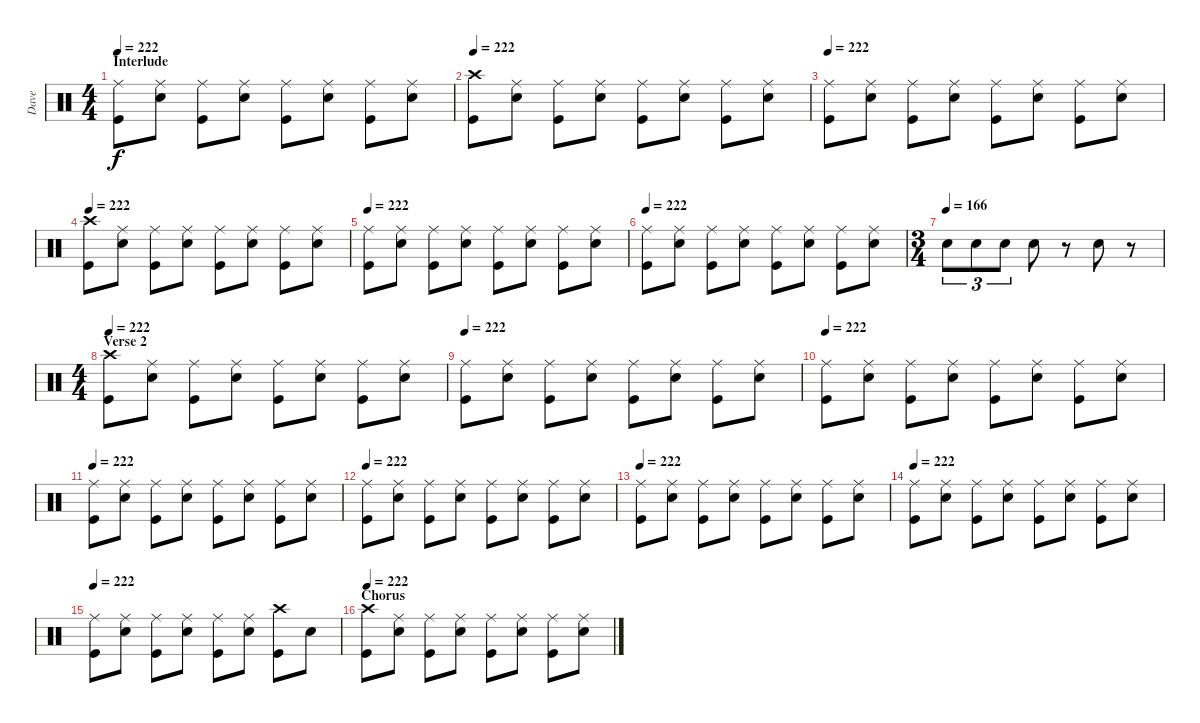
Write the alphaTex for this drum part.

\track ("Dave" "Dave") {instrument percussion}
\staff {score}
\articulation defaults
\ts (4 4)
\section ("" "Interlude")
\tempo 222
\clef neutral
\ks c
("Ride (middle)" "Kick (hit)").8{dy f} ("Ride (middle)" "Snare (hit) 2").8 ("Ride (middle)" "Kick (hit)").8 ("Ride (middle)" "Snare (hit) 2").8 ("Ride (middle)" "Kick (hit)").8 ("Ride (middle)" "Snare (hit) 2").8 ("Ride (middle)" "Kick (hit)").8 ("Ride (middle)" "Snare (hit) 2").8 |
\tempo 222
("Crash high (hit)" "Kick (hit)").8 ("Ride (middle)" "Snare (hit) 2").8 ("Ride (middle)" "Kick (hit)").8 ("Ride (middle)" "Snare (hit) 2").8 ("Ride (middle)" "Kick (hit)").8 ("Ride (middle)" "Snare (hit) 2").8 ("Ride (middle)" "Kick (hit)").8 ("Ride (middle)" "Snare (hit) 2").8 |
\tempo 222
("Ride (middle)" "Kick (hit)").8 ("Ride (middle)" "Snare (hit) 2").8 ("Ride (middle)" "Kick (hit)").8 ("Ride (middle)" "Snare (hit) 2").8 ("Ride (middle)" "Kick (hit)").8 ("Ride (middle)" "Snare (hit) 2").8 ("Ride (middle)" "Kick (hit)").8 ("Ride (middle)" "Snare (hit) 2").8 |
\tempo 222
("Crash high (hit)" "Kick (hit)").8 ("Ride (middle)" "Snare (hit) 2").8 ("Ride (middle)" "Kick (hit)").8 ("Ride (middle)" "Snare (hit) 2").8 ("Ride (middle)" "Kick (hit)").8 ("Ride (middle)" "Snare (hit) 2").8 ("Ride (middle)" "Kick (hit)").8 ("Ride (middle)" "Snare (hit) 2").8 |
\tempo 222
("Ride (middle)" "Kick (hit)").8 ("Ride (middle)" "Snare (hit) 2").8 ("Ride (middle)" "Kick (hit)").8 ("Ride (middle)" "Snare (hit) 2").8 ("Ride (middle)" "Kick (hit)").8 ("Ride (middle)" "Snare (hit) 2").8 ("Ride (middle)" "Kick (hit)").8 ("Ride (middle)" "Snare (hit) 2").8 |
\tempo 222
("Ride (middle)" "Kick (hit)").8 ("Ride (middle)" "Snare (hit) 2").8 ("Ride (middle)" "Kick (hit)").8 ("Ride (middle)" "Snare (hit) 2").8 ("Ride (middle)" "Kick (hit)").8 ("Ride (middle)" "Snare (hit) 2").8 ("Ride (middle)" "Kick (hit)").8 ("Ride (middle)" "Snare (hit) 2").8 |
\ts (3 4)
\tempo (166)
"Snare (hit) 2".8{tu (3 2)} "Snare (hit) 2".8{tu (3 2)} "Snare (hit) 2".8{tu (3 2)} "Snare (hit) 2".8 r.8 "Snare (hit) 2".8 r.8 |
\ts (4 4)
\section ("" "Verse 2")
\tempo 222
("Crash high (hit)" "Kick (hit)").8 ("Ride (middle)" "Snare (hit) 2").8 ("Ride (middle)" "Kick (hit)").8 ("Ride (middle)" "Snare (hit) 2").8 ("Ride (middle)" "Kick (hit)").8 ("Ride (middle)" "Snare (hit) 2").8 ("Ride (middle)" "Kick (hit)").8 ("Ride (middle)" "Snare (hit) 2").8 |
\tempo 222
("Ride (middle)" "Kick (hit)").8 ("Ride (middle)" "Snare (hit) 2").8 ("Ride (middle)" "Kick (hit)").8 ("Ride (middle)" "Snare (hit) 2").8 ("Ride (middle)" "Kick (hit)").8 ("Ride (middle)" "Snare (hit) 2").8 ("Ride (middle)" "Kick (hit)").8 ("Ride (middle)" "Snare (hit) 2").8 |
\tempo 222
("Ride (middle)" "Kick (hit)").8 ("Ride (middle)" "Snare (hit) 2").8 ("Ride (middle)" "Kick (hit)").8 ("Ride (middle)" "Snare (hit) 2").8 ("Ride (middle)" "Kick (hit)").8 ("Ride (middle)" "Snare (hit) 2").8 ("Ride (middle)" "Kick (hit)").8 ("Ride (middle)" "Snare (hit) 2").8 |
\tempo 222
("Ride (middle)" "Kick (hit)").8 ("Ride (middle)" "Snare (hit) 2").8 ("Ride (middle)" "Kick (hit)").8 ("Ride (middle)" "Snare (hit) 2").8 ("Ride (middle)" "Kick (hit)").8 ("Ride (middle)" "Snare (hit) 2").8 ("Ride (middle)" "Kick (hit)").8 ("Ride (middle)" "Snare (hit) 2").8 |
\tempo 222
("Ride (middle)" "Kick (hit)").8 ("Ride (middle)" "Snare (hit) 2").8 ("Ride (middle)" "Kick (hit)").8 ("Ride (middle)" "Snare (hit) 2").8 ("Ride (middle)" "Kick (hit)").8 ("Ride (middle)" "Snare (hit) 2").8 ("Ride (middle)" "Kick (hit)").8 ("Ride (middle)" "Snare (hit) 2").8 |
\tempo 222
("Ride (middle)" "Kick (hit)").8 ("Ride (middle)" "Snare (hit) 2").8 ("Ride (middle)" "Kick (hit)").8 ("Ride (middle)" "Snare (hit) 2").8 ("Ride (middle)" "Kick (hit)").8 ("Ride (middle)" "Snare (hit) 2").8 ("Ride (middle)" "Kick (hit)").8 ("Ride (middle)" "Snare (hit) 2").8 |
\tempo 222
("Ride (middle)" "Kick (hit)").8 ("Ride (middle)" "Snare (hit) 2").8 ("Ride (middle)" "Kick (hit)").8 ("Ride (middle)" "Snare (hit) 2").8 ("Ride (middle)" "Kick (hit)").8 ("Ride (middle)" "Snare (hit) 2").8 ("Ride (middle)" "Kick (hit)").8 ("Ride (middle)" "Snare (hit) 2").8 |
\tempo 222
("Ride (middle)" "Kick (hit)").8 ("Ride (middle)" "Snare (hit) 2").8 ("Ride (middle)" "Kick (hit)").8 ("Ride (middle)" "Snare (hit) 2").8 ("Ride (middle)" "Kick (hit)").8 ("Ride (middle)" "Snare (hit) 2").8 ("Crash high (hit)" "Kick (hit)").8 "Snare (hit) 2".8 |
\section ("" "Chorus")
\tempo 222
("Crash high (hit)" "Kick (hit)").8 ("Ride (middle)" "Snare (hit) 2").8 ("Ride (middle)" "Kick (hit)").8 ("Ride (middle)" "Snare (hit) 2").8 ("Ride (middle)" "Kick (hit)").8 ("Ride (middle)" "Snare (hit) 2").8 ("Ride (middle)" "Kick (hit)").8 ("Ride (middle)" "Snare (hit) 2").8
